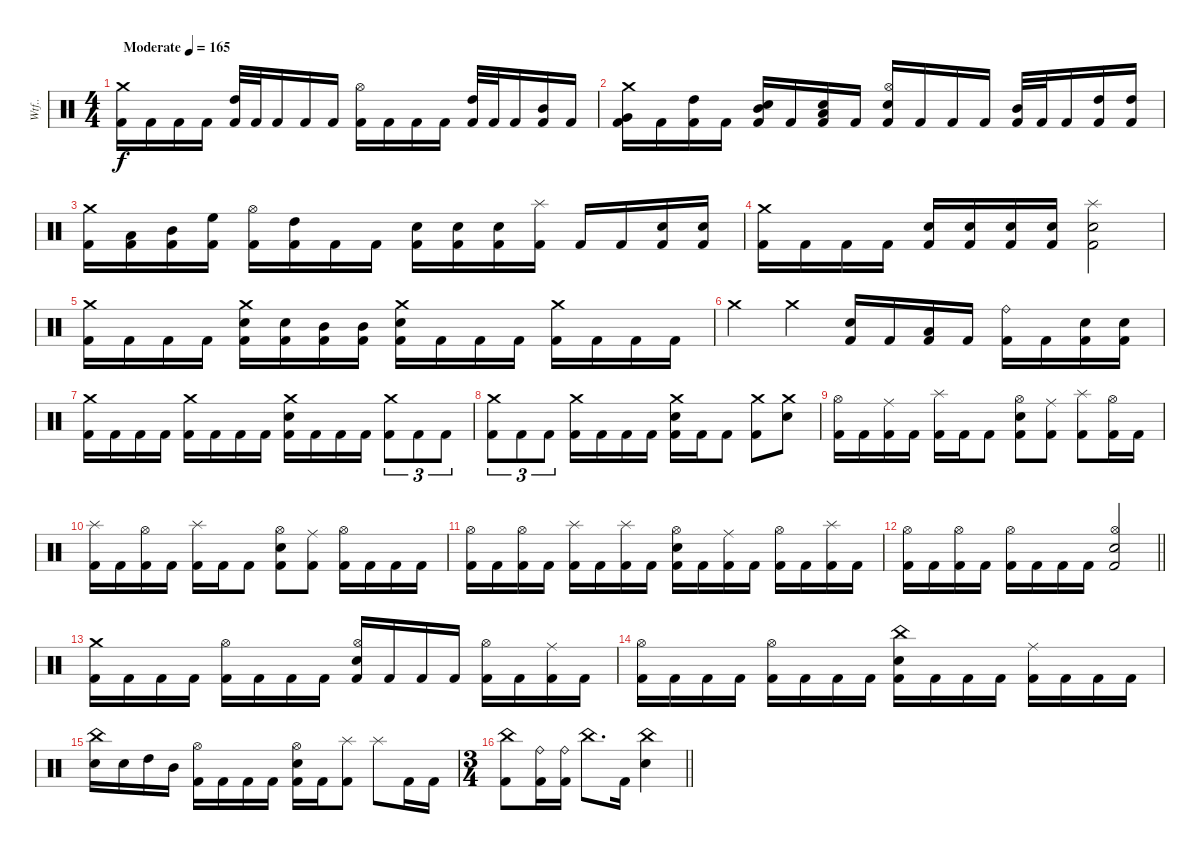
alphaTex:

\track ("Wtf.." "Wtf..") {instrument percussion}
\staff {score}
\articulation defaults
\ts (4 4)
\section ("" "")
\tempo (165 "Moderate")
\clef neutral
\ks c
("Crash medium (hit)" "Kick (hit) 2").16{dy f} "Kick (hit) 2".16 "Kick (hit) 2".16 "Kick (hit) 2".16 ("High Tom (hit)" "Kick (hit) 2").32 "Kick (hit) 2".32 "Kick (hit) 2".16 "Kick (hit) 2".16 "Kick (hit) 2".16 ("Hi-Hat (open)" "Kick (hit) 2").16 "Kick (hit) 2".16 "Kick (hit) 2".16 "Kick (hit) 2".16 ("High Tom (hit)" "Kick (hit) 2").32 "Kick (hit) 2".32 "Kick (hit) 2".16 ("Mid Tom (hit)" "Kick (hit) 2").16 "Kick (hit) 2".16 |
("Crash medium (hit)" "Very Low Tom (hit)" "Kick (hit) 2").16 "Kick (hit) 2".16 ("High Tom (hit)" "Kick (hit) 2").16 "Kick (hit) 2".16 ("Mid Tom (hit)" "Electric Snare (hit)" "Kick (hit) 2").16 "Kick (hit) 2".16 ("Low Tom (hit)" "Electric Snare (hit)" "Kick (hit) 2").16 "Kick (hit) 2".16 ("Hi-Hat (open)" "Electric Snare (hit)" "Kick (hit) 2").16 "Kick (hit) 2".16 "Kick (hit) 2".16 "Kick (hit) 2".16 ("Mid Tom (hit)" "Kick (hit) 2").32 "Kick (hit) 2".32 "Kick (hit) 2".16 ("High Tom (hit)" "Kick (hit) 2").16 ("High Tom (hit)" "Kick (hit) 2").16 |
("Crash medium (hit)" "Kick (hit) 2").16 ("Low Tom (hit)" "Kick (hit) 2").16 ("Mid Tom (hit)" "Kick (hit) 2").16 ("High Floor Tom (hit)" "Kick (hit) 2").16 ("Hi-Hat (open)" "Kick (hit) 2").16 ("High Tom (hit)" "Kick (hit) 2").16 "Kick (hit) 2".16 "Kick (hit) 2".16 ("Electric Snare (hit)" "Kick (hit) 2").16 ("Electric Snare (hit)" "Kick (hit) 2").16 ("Electric Snare (hit)" "Kick (hit) 2").16 ("Splash (hit)" "Kick (hit) 2").16 "Kick (hit) 2".16 "Kick (hit) 2".16 ("Electric Snare (hit)" "Kick (hit) 2").16 ("Electric Snare (hit)" "Kick (hit) 2").16 |
("Crash medium (hit)" "Kick (hit) 2").16 "Kick (hit) 2".16 "Kick (hit) 2".16 "Kick (hit) 2".16 ("Electric Snare (hit)" "Kick (hit) 2").16 ("Electric Snare (hit)" "Kick (hit) 2").16 ("Electric Snare (hit)" "Kick (hit) 2").16 ("Electric Snare (hit)" "Kick (hit) 2").16 ("Splash (hit)" "Electric Snare (hit)" "Kick (hit) 2").2 |
("Crash medium (hit)" "Kick (hit) 2").16 "Kick (hit) 2".16 "Kick (hit) 2".16 "Kick (hit) 2".16 ("Crash medium (hit)" "Electric Snare (hit)" "Kick (hit) 2").16 ("Electric Snare (hit)" "Kick (hit) 2").16 ("Mid Tom (hit)" "Kick (hit) 2").16 ("Mid Tom (hit)" "Kick (hit) 2").16 ("Crash medium (hit)" "Electric Snare (hit)" "Kick (hit) 2").16 "Kick (hit) 2".16 "Kick (hit) 2".16 "Kick (hit) 2".16 ("Crash medium (hit)" "Kick (hit) 2").16 "Kick (hit) 2".16 "Kick (hit) 2".16 "Kick (hit) 2".16 |
"Crash medium (hit)".4 "Crash medium (hit)".4 ("Electric Snare (hit)" "Kick (hit) 2").16 "Kick (hit) 2".16 ("Low Tom (hit)" "Kick (hit) 2").16 "Kick (hit) 2".16 ("Ride (bell)" "Kick (hit) 2").16 "Kick (hit) 2".16 ("Electric Snare (hit)" "Kick (hit) 2").16 ("Electric Snare (hit)" "Kick (hit) 2").16 |
("Crash medium (hit)" "Kick (hit) 2").16 "Kick (hit) 2".16 "Kick (hit) 2".16 "Kick (hit) 2".16 ("Crash medium (hit)" "Kick (hit) 2").16 "Kick (hit) 2".16 "Kick (hit) 2".16 "Kick (hit) 2".16 ("Crash medium (hit)" "Electric Snare (hit)" "Kick (hit) 2").16 "Kick (hit) 2".16 "Kick (hit) 2".16 "Kick (hit) 2".16 ("Crash medium (hit)" "Kick (hit) 2").8{tu (3 2)} "Kick (hit) 2".8{tu (3 2)} "Kick (hit) 2".8{tu (3 2)} |
("Crash medium (hit)" "Kick (hit) 2").8{tu (3 2)} "Kick (hit) 2".8{tu (3 2)} "Kick (hit) 2".8{tu (3 2)} ("Crash medium (hit)" "Kick (hit) 2").16 "Kick (hit) 2".16 "Kick (hit) 2".16 "Kick (hit) 2".16 ("Crash medium (hit)" "Electric Snare (hit)" "Kick (hit) 2").16 "Kick (hit) 2".16 "Kick (hit) 2".8 ("Crash medium (hit)" "Kick (hit) 2").8 ("Crash medium (hit)" "Electric Snare (hit)").8 |
("Hi-Hat (open)" "Kick (hit) 2").16 "Kick (hit) 2".16 ("Ride (middle)" "Kick (hit) 2").16 "Kick (hit) 2".16 ("Splash (hit)" "Kick (hit) 2").16 "Kick (hit) 2".16 "Kick (hit) 2".8 ("Hi-Hat (open)" "Electric Snare (hit)" "Kick (hit) 2").8 ("Ride (middle)" "Kick (hit) 2").8 ("Splash (hit)" "Kick (hit) 2").8 ("Hi-Hat (open)" "Kick (hit) 2").16 "Kick (hit) 2".16 |
("Splash (hit)" "Kick (hit) 2").16 "Kick (hit) 2".16 ("Hi-Hat (open)" "Kick (hit) 2").16 "Kick (hit) 2".16 ("Splash (hit)" "Kick (hit) 2").16 "Kick (hit) 2".16 "Kick (hit) 2".8 ("Hi-Hat (open)" "Electric Snare (hit)" "Kick (hit) 2").8 ("Ride (middle)" "Kick (hit) 2").8 ("Hi-Hat (open)" "Kick (hit) 2").16 "Kick (hit) 2".16 "Kick (hit) 2".16 "Kick (hit) 2".16 |
("Hi-Hat (open)" "Kick (hit) 2").16 "Kick (hit) 2".16 ("Hi-Hat (open)" "Kick (hit) 2").16 "Kick (hit) 2".16 ("Splash (hit)" "Kick (hit) 2").16 "Kick (hit) 2".16 ("Splash (hit)" "Kick (hit) 2").16 "Kick (hit) 2".16 ("Hi-Hat (open)" "Electric Snare (hit)" "Kick (hit) 2").16 "Kick (hit) 2".16 ("Ride (middle)" "Kick (hit) 2").16 "Kick (hit) 2".16 ("Hi-Hat (open)" "Kick (hit) 2").16 "Kick (hit) 2".16 ("Splash (hit)" "Kick (hit) 2").16 "Kick (hit) 2".16 |
\barLineRight lightlight
("Hi-Hat (open)" "Kick (hit) 2").16 "Kick (hit) 2".16 ("Hi-Hat (open)" "Kick (hit) 2").16 "Kick (hit) 2".16 ("Hi-Hat (open)" "Kick (hit) 2").16 "Kick (hit) 2".16 "Kick (hit) 2".16 "Kick (hit) 2".16 ("Hi-Hat (open)" "Electric Snare (hit)" "Kick (hit) 2").2 |
\section ("" "")
("Crash medium (hit)" "Kick (hit) 2").16 "Kick (hit) 2".16 "Kick (hit) 2".16 "Kick (hit) 2".16 ("Hi-Hat (open)" "Kick (hit) 2").16 "Kick (hit) 2".16 "Kick (hit) 2".16 "Kick (hit) 2".16 ("Hi-Hat (open)" "Electric Snare (hit)" "Kick (hit) 2").16 "Kick (hit) 2".16 "Kick (hit) 2".16 "Kick (hit) 2".16 ("Hi-Hat (open)" "Kick (hit) 2").16 "Kick (hit) 2".16 ("Ride (middle)" "Kick (hit) 2").16 "Kick (hit) 2".16 |
("Hi-Hat (open)" "Kick (hit) 2").16 "Kick (hit) 2".16 "Kick (hit) 2".16 "Kick (hit) 2".16 ("Hi-Hat (open)" "Kick (hit) 2").16 "Kick (hit) 2".16 "Kick (hit) 2".16 "Kick (hit) 2".16 ("China (hit)" "Electric Snare (hit)" "Kick (hit) 2").16 "Kick (hit) 2".16 "Kick (hit) 2".16 "Kick (hit) 2".16 ("Ride (middle)" "Kick (hit) 2").16 "Kick (hit) 2".16 "Kick (hit) 2".16 "Kick (hit) 2".16 |
("China (hit)" "Electric Snare (hit)").16 "Electric Snare (hit)".16 "High Tom (hit)".16 "Mid Tom (hit)".16 ("Hi-Hat (open)" "Kick (hit) 2").16 "Kick (hit) 2".16 "Kick (hit) 2".16 "Kick (hit) 2".16 ("Hi-Hat (open)" "Electric Snare (hit)" "Kick (hit) 2").16 "Kick (hit) 2".16 ("Splash (hit)" "Kick (hit) 2").8 "Splash (hit)".8 "Kick (hit) 2".16 "Kick (hit) 2".16 |
\ts (3 4)
\barLineRight lightlight
("China (hit)" "Kick (hit) 2").8 ("Ride (bell)" "Kick (hit) 2").16 ("Ride (bell)" "Kick (hit) 2").16 "China (hit)".8{d} "Kick (hit) 2".16 ("China (hit)" "Electric Snare (hit)").4
